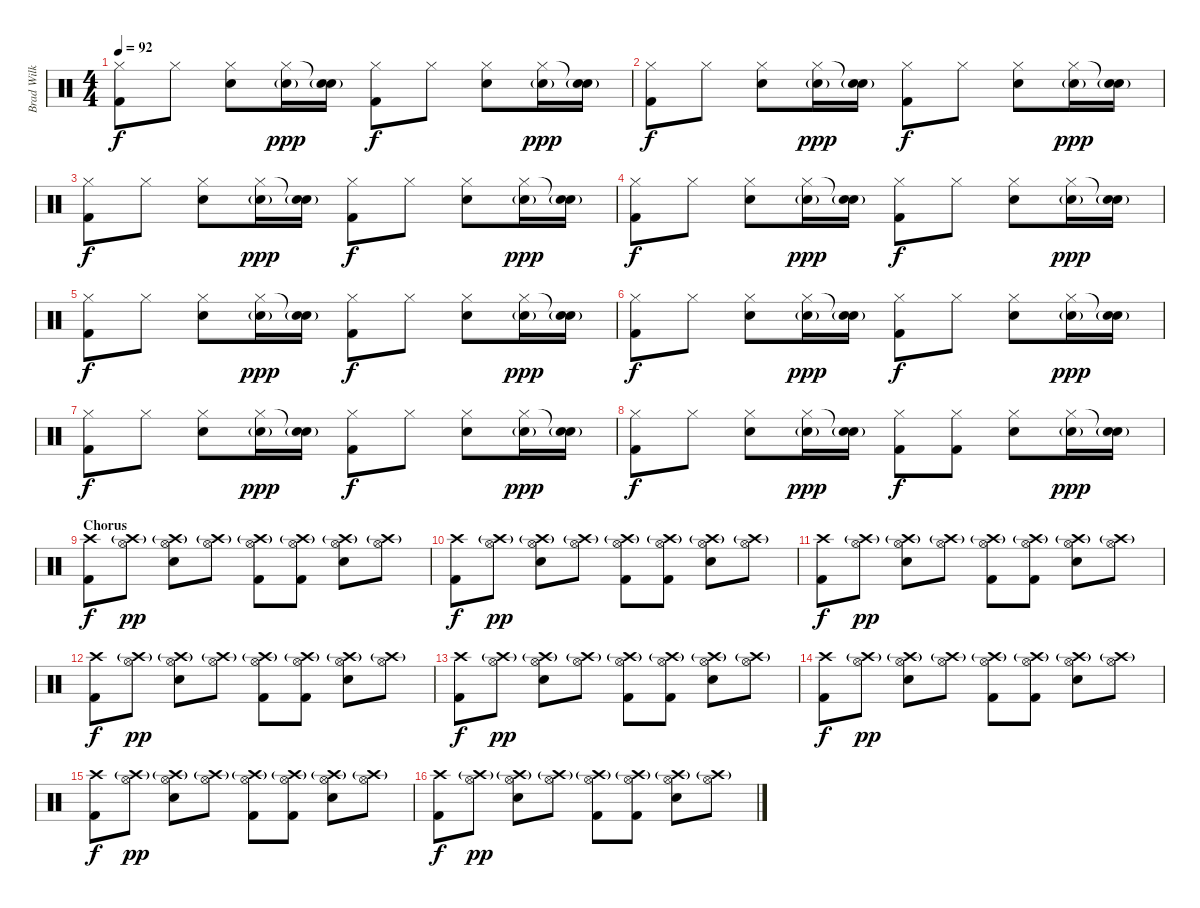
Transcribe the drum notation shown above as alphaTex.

\track ("Brad Wilk" "Brad Wilk") {instrument percussion}
\staff {score}
\articulation defaults
\ts (4 4)
\tempo 92
\clef neutral
\ks c
("Hi-Hat (closed)" "Kick (hit) 2").8{dy f} "Hi-Hat (closed)".8 ("Hi-Hat (closed)" "Electric Snare (hit)").8 ("Hi-Hat (closed)" "Electric Snare (hit)"{g}).16{dy ppp} ("Snare (hit)"{t} "Electric Snare (hit)"{g}).16 ("Hi-Hat (closed)" "Kick (hit) 2").8{dy f} "Hi-Hat (closed)".8 ("Hi-Hat (closed)" "Electric Snare (hit)").8 ("Hi-Hat (closed)" "Electric Snare (hit)"{g}).16{dy ppp} ("Snare (hit)"{t} "Electric Snare (hit)"{g}).16 |
("Hi-Hat (closed)" "Kick (hit) 2").8{dy f} "Hi-Hat (closed)".8 ("Hi-Hat (closed)" "Electric Snare (hit)").8 ("Hi-Hat (closed)" "Electric Snare (hit)"{g}).16{dy ppp} ("Snare (hit)"{t} "Electric Snare (hit)"{g}).16 ("Hi-Hat (closed)" "Kick (hit) 2").8{dy f} "Hi-Hat (closed)".8 ("Hi-Hat (closed)" "Electric Snare (hit)").8 ("Hi-Hat (closed)" "Electric Snare (hit)"{g}).16{dy ppp} ("Snare (hit)"{t} "Electric Snare (hit)"{g}).16 |
("Hi-Hat (closed)" "Kick (hit) 2").8{dy f} "Hi-Hat (closed)".8 ("Hi-Hat (closed)" "Electric Snare (hit)").8 ("Hi-Hat (closed)" "Electric Snare (hit)"{g}).16{dy ppp} ("Snare (hit)"{t} "Electric Snare (hit)"{g}).16 ("Hi-Hat (closed)" "Kick (hit) 2").8{dy f} "Hi-Hat (closed)".8 ("Hi-Hat (closed)" "Electric Snare (hit)").8 ("Hi-Hat (closed)" "Electric Snare (hit)"{g}).16{dy ppp} ("Snare (hit)"{t} "Electric Snare (hit)"{g}).16 |
("Hi-Hat (closed)" "Kick (hit) 2").8{dy f} "Hi-Hat (closed)".8 ("Hi-Hat (closed)" "Electric Snare (hit)").8 ("Hi-Hat (closed)" "Electric Snare (hit)"{g}).16{dy ppp} ("Snare (hit)"{t} "Electric Snare (hit)"{g}).16 ("Hi-Hat (closed)" "Kick (hit) 2").8{dy f} "Hi-Hat (closed)".8 ("Hi-Hat (closed)" "Electric Snare (hit)").8 ("Hi-Hat (closed)" "Electric Snare (hit)"{g}).16{dy ppp} ("Snare (hit)"{t} "Electric Snare (hit)"{g}).16 |
("Hi-Hat (closed)" "Kick (hit) 2").8{dy f} "Hi-Hat (closed)".8 ("Hi-Hat (closed)" "Electric Snare (hit)").8 ("Hi-Hat (closed)" "Electric Snare (hit)"{g}).16{dy ppp} ("Snare (hit)"{t} "Electric Snare (hit)"{g}).16 ("Hi-Hat (closed)" "Kick (hit) 2").8{dy f} "Hi-Hat (closed)".8 ("Hi-Hat (closed)" "Electric Snare (hit)").8 ("Hi-Hat (closed)" "Electric Snare (hit)"{g}).16{dy ppp} ("Snare (hit)"{t} "Electric Snare (hit)"{g}).16 |
("Hi-Hat (closed)" "Kick (hit) 2").8{dy f} "Hi-Hat (closed)".8 ("Hi-Hat (closed)" "Electric Snare (hit)").8 ("Hi-Hat (closed)" "Electric Snare (hit)"{g}).16{dy ppp} ("Snare (hit)"{t} "Electric Snare (hit)"{g}).16 ("Hi-Hat (closed)" "Kick (hit) 2").8{dy f} "Hi-Hat (closed)".8 ("Hi-Hat (closed)" "Electric Snare (hit)").8 ("Hi-Hat (closed)" "Electric Snare (hit)"{g}).16{dy ppp} ("Snare (hit)"{t} "Electric Snare (hit)"{g}).16 |
("Hi-Hat (closed)" "Kick (hit) 2").8{dy f} "Hi-Hat (closed)".8 ("Hi-Hat (closed)" "Electric Snare (hit)").8 ("Hi-Hat (closed)" "Electric Snare (hit)"{g}).16{dy ppp} ("Snare (hit)"{t} "Electric Snare (hit)"{g}).16 ("Hi-Hat (closed)" "Kick (hit) 2").8{dy f} "Hi-Hat (closed)".8 ("Hi-Hat (closed)" "Electric Snare (hit)").8 ("Hi-Hat (closed)" "Electric Snare (hit)"{g}).16{dy ppp} ("Snare (hit)"{t} "Electric Snare (hit)"{g}).16 |
("Hi-Hat (closed)" "Kick (hit) 2").8{dy f} "Hi-Hat (closed)".8 ("Hi-Hat (closed)" "Electric Snare (hit)").8 ("Hi-Hat (closed)" "Electric Snare (hit)"{g}).16{dy ppp} ("Snare (hit)"{t} "Electric Snare (hit)"{g}).16 ("Hi-Hat (closed)" "Kick (hit) 2").8{dy f} ("Hi-Hat (closed)" "Kick (hit) 2").8 ("Hi-Hat (closed)" "Electric Snare (hit)").8 ("Hi-Hat (closed)" "Electric Snare (hit)"{g}).16{dy ppp} ("Snare (hit)"{t} "Electric Snare (hit)"{g}).16 |
\section ("" "Chorus")
("Crash high (hit)" "Kick (hit) 2").8{dy f} ("Hi-Hat (open)" "Crash high (hit)"{g}).8{dy pp} ("Hi-Hat (open)" "Crash high (hit)"{g} "Electric Snare (hit)").8 ("Hi-Hat (open)" "Crash high (hit)"{g}).8 ("Hi-Hat (open)" "Crash high (hit)"{g} "Kick (hit) 2").8 ("Hi-Hat (open)" "Crash high (hit)"{g} "Kick (hit) 2").8 ("Hi-Hat (open)" "Crash high (hit)"{g} "Electric Snare (hit)").8 ("Hi-Hat (open)" "Crash high (hit)"{g}).8 |
("Crash high (hit)" "Kick (hit) 2").8{dy f} ("Hi-Hat (open)" "Crash high (hit)"{g}).8{dy pp} ("Hi-Hat (open)" "Crash high (hit)"{g} "Electric Snare (hit)").8 ("Hi-Hat (open)" "Crash high (hit)"{g}).8 ("Hi-Hat (open)" "Crash high (hit)"{g} "Kick (hit) 2").8 ("Hi-Hat (open)" "Crash high (hit)"{g} "Kick (hit) 2").8 ("Hi-Hat (open)" "Crash high (hit)"{g} "Electric Snare (hit)").8 ("Hi-Hat (open)" "Crash high (hit)"{g}).8 |
("Crash high (hit)" "Kick (hit) 2").8{dy f} ("Hi-Hat (open)" "Crash high (hit)"{g}).8{dy pp} ("Hi-Hat (open)" "Crash high (hit)"{g} "Electric Snare (hit)").8 ("Hi-Hat (open)" "Crash high (hit)"{g}).8 ("Hi-Hat (open)" "Crash high (hit)"{g} "Kick (hit) 2").8 ("Hi-Hat (open)" "Crash high (hit)"{g} "Kick (hit) 2").8 ("Hi-Hat (open)" "Crash high (hit)"{g} "Electric Snare (hit)").8 ("Hi-Hat (open)" "Crash high (hit)"{g}).8 |
("Crash high (hit)" "Kick (hit) 2").8{dy f} ("Hi-Hat (open)" "Crash high (hit)"{g}).8{dy pp} ("Hi-Hat (open)" "Crash high (hit)"{g} "Electric Snare (hit)").8 ("Hi-Hat (open)" "Crash high (hit)"{g}).8 ("Hi-Hat (open)" "Crash high (hit)"{g} "Kick (hit) 2").8 ("Hi-Hat (open)" "Crash high (hit)"{g} "Kick (hit) 2").8 ("Hi-Hat (open)" "Crash high (hit)"{g} "Electric Snare (hit)").8 ("Hi-Hat (open)" "Crash high (hit)"{g}).8 |
("Crash high (hit)" "Kick (hit) 2").8{dy f} ("Hi-Hat (open)" "Crash high (hit)"{g}).8{dy pp} ("Hi-Hat (open)" "Crash high (hit)"{g} "Electric Snare (hit)").8 ("Hi-Hat (open)" "Crash high (hit)"{g}).8 ("Hi-Hat (open)" "Crash high (hit)"{g} "Kick (hit) 2").8 ("Hi-Hat (open)" "Crash high (hit)"{g} "Kick (hit) 2").8 ("Hi-Hat (open)" "Crash high (hit)"{g} "Electric Snare (hit)").8 ("Hi-Hat (open)" "Crash high (hit)"{g}).8 |
("Crash high (hit)" "Kick (hit) 2").8{dy f} ("Hi-Hat (open)" "Crash high (hit)"{g}).8{dy pp} ("Hi-Hat (open)" "Crash high (hit)"{g} "Electric Snare (hit)").8 ("Hi-Hat (open)" "Crash high (hit)"{g}).8 ("Hi-Hat (open)" "Crash high (hit)"{g} "Kick (hit) 2").8 ("Hi-Hat (open)" "Crash high (hit)"{g} "Kick (hit) 2").8 ("Hi-Hat (open)" "Crash high (hit)"{g} "Electric Snare (hit)").8 ("Hi-Hat (open)" "Crash high (hit)"{g}).8 |
("Crash high (hit)" "Kick (hit) 2").8{dy f} ("Hi-Hat (open)" "Crash high (hit)"{g}).8{dy pp} ("Hi-Hat (open)" "Crash high (hit)"{g} "Electric Snare (hit)").8 ("Hi-Hat (open)" "Crash high (hit)"{g}).8 ("Hi-Hat (open)" "Crash high (hit)"{g} "Kick (hit) 2").8 ("Hi-Hat (open)" "Crash high (hit)"{g} "Kick (hit) 2").8 ("Hi-Hat (open)" "Crash high (hit)"{g} "Electric Snare (hit)").8 ("Hi-Hat (open)" "Crash high (hit)"{g}).8 |
("Crash high (hit)" "Kick (hit) 2").8{dy f} ("Hi-Hat (open)" "Crash high (hit)"{g}).8{dy pp} ("Hi-Hat (open)" "Crash high (hit)"{g} "Electric Snare (hit)").8 ("Hi-Hat (open)" "Crash high (hit)"{g}).8 ("Hi-Hat (open)" "Crash high (hit)"{g} "Kick (hit) 2").8 ("Hi-Hat (open)" "Crash high (hit)"{g} "Kick (hit) 2").8 ("Hi-Hat (open)" "Crash high (hit)"{g} "Electric Snare (hit)").8 ("Hi-Hat (open)" "Crash high (hit)"{g}).8
